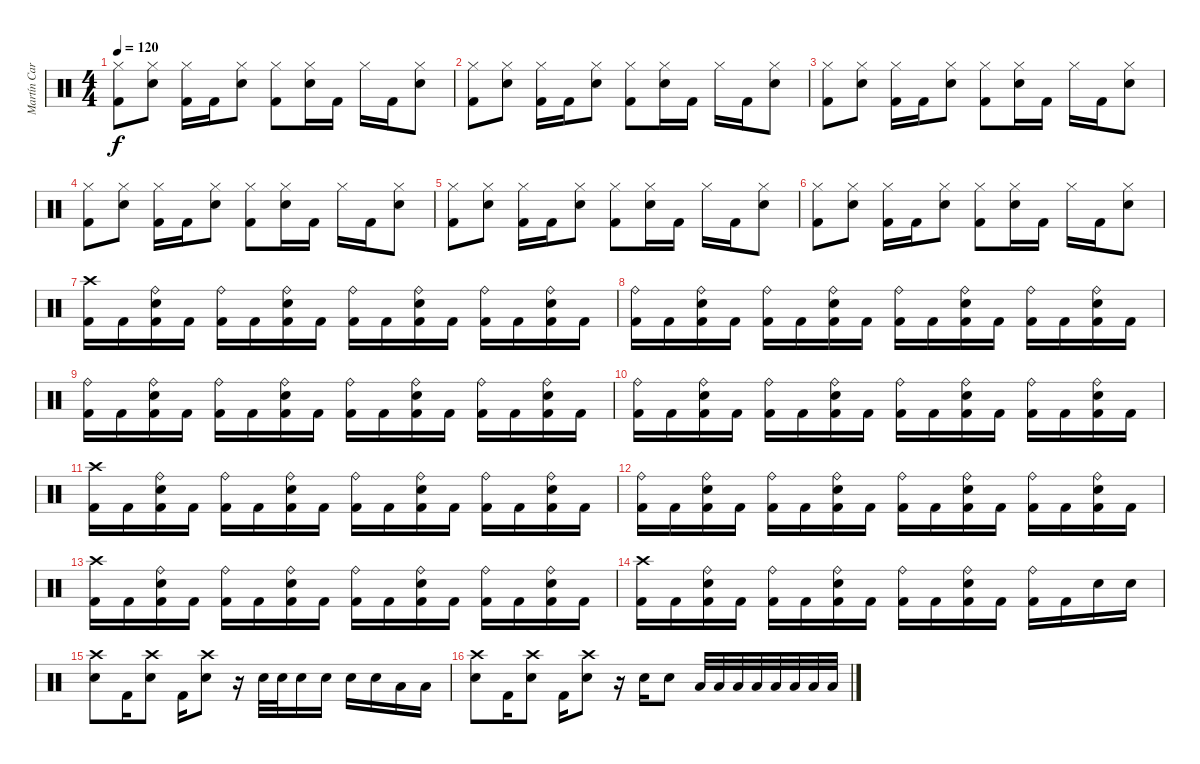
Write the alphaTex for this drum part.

\track ("Martín Carrizo" "Martín Car") {instrument percussion}
\staff {score}
\articulation defaults
\ts (4 4)
\tempo 120
\clef neutral
\ks c
("Hi-Hat (closed)" "Kick (hit) 2").8{dy f} ("Hi-Hat (closed)" "Snare (hit) 2").8 ("Hi-Hat (closed)" "Kick (hit) 2").16 "Kick (hit) 2".16 ("Hi-Hat (closed)" "Snare (hit) 2").8 ("Hi-Hat (closed)" "Kick (hit) 2").8 ("Hi-Hat (closed)" "Snare (hit) 2").16 "Kick (hit) 2".16 "Hi-Hat (closed)".16 "Kick (hit) 2".16 ("Hi-Hat (closed)" "Snare (hit) 2").8 |
("Hi-Hat (closed)" "Kick (hit) 2").8 ("Hi-Hat (closed)" "Snare (hit) 2").8 ("Hi-Hat (closed)" "Kick (hit) 2").16 "Kick (hit) 2".16 ("Hi-Hat (closed)" "Snare (hit) 2").8 ("Hi-Hat (closed)" "Kick (hit) 2").8 ("Hi-Hat (closed)" "Snare (hit) 2").16 "Kick (hit) 2".16 "Hi-Hat (closed)".16 "Kick (hit) 2".16 ("Hi-Hat (closed)" "Snare (hit) 2").8 |
("Hi-Hat (closed)" "Kick (hit) 2").8 ("Hi-Hat (closed)" "Snare (hit) 2").8 ("Hi-Hat (closed)" "Kick (hit) 2").16 "Kick (hit) 2".16 ("Hi-Hat (closed)" "Snare (hit) 2").8 ("Hi-Hat (closed)" "Kick (hit) 2").8 ("Hi-Hat (closed)" "Snare (hit) 2").16 "Kick (hit) 2".16 "Hi-Hat (closed)".16 "Kick (hit) 2".16 ("Hi-Hat (closed)" "Snare (hit) 2").8 |
("Hi-Hat (closed)" "Kick (hit) 2").8 ("Hi-Hat (closed)" "Snare (hit) 2").8 ("Hi-Hat (closed)" "Kick (hit) 2").16 "Kick (hit) 2".16 ("Hi-Hat (closed)" "Snare (hit) 2").8 ("Hi-Hat (closed)" "Kick (hit) 2").8 ("Hi-Hat (closed)" "Snare (hit) 2").16 "Kick (hit) 2".16 "Hi-Hat (closed)".16 "Kick (hit) 2".16 ("Hi-Hat (closed)" "Snare (hit) 2").8 |
("Hi-Hat (closed)" "Kick (hit) 2").8 ("Hi-Hat (closed)" "Snare (hit) 2").8 ("Hi-Hat (closed)" "Kick (hit) 2").16 "Kick (hit) 2".16 ("Hi-Hat (closed)" "Snare (hit) 2").8 ("Hi-Hat (closed)" "Kick (hit) 2").8 ("Hi-Hat (closed)" "Snare (hit) 2").16 "Kick (hit) 2".16 "Hi-Hat (closed)".16 "Kick (hit) 2".16 ("Hi-Hat (closed)" "Snare (hit) 2").8 |
("Hi-Hat (closed)" "Kick (hit) 2").8 ("Hi-Hat (closed)" "Snare (hit) 2").8 ("Hi-Hat (closed)" "Kick (hit) 2").16 "Kick (hit) 2".16 ("Hi-Hat (closed)" "Snare (hit) 2").8 ("Hi-Hat (closed)" "Kick (hit) 2").8 ("Hi-Hat (closed)" "Snare (hit) 2").16 "Kick (hit) 2".16 "Hi-Hat (closed)".16 "Kick (hit) 2".16 ("Hi-Hat (closed)" "Snare (hit) 2").8 |
("Crash high (hit)" "Kick (hit) 2").16 "Kick (hit) 2".16 ("Snare (hit) 2" "Ride (bell)" "Kick (hit) 2").16 "Kick (hit) 2".16 ("Ride (bell)" "Kick (hit) 2").16 "Kick (hit) 2".16 ("Snare (hit) 2" "Ride (bell)" "Kick (hit) 2").16 "Kick (hit) 2".16 ("Ride (bell)" "Kick (hit) 2").16 "Kick (hit) 2".16 ("Snare (hit) 2" "Ride (bell)" "Kick (hit) 2").16 "Kick (hit) 2".16 ("Ride (bell)" "Kick (hit) 2").16 "Kick (hit) 2".16 ("Snare (hit) 2" "Ride (bell)" "Kick (hit) 2").16 "Kick (hit) 2".16 |
("Ride (bell)" "Kick (hit) 2").16 "Kick (hit) 2".16 ("Snare (hit) 2" "Ride (bell)" "Kick (hit) 2").16 "Kick (hit) 2".16 ("Ride (bell)" "Kick (hit) 2").16 "Kick (hit) 2".16 ("Snare (hit) 2" "Ride (bell)" "Kick (hit) 2").16 "Kick (hit) 2".16 ("Ride (bell)" "Kick (hit) 2").16 "Kick (hit) 2".16 ("Snare (hit) 2" "Ride (bell)" "Kick (hit) 2").16 "Kick (hit) 2".16 ("Ride (bell)" "Kick (hit) 2").16 "Kick (hit) 2".16 ("Snare (hit) 2" "Ride (bell)" "Kick (hit) 2").16 "Kick (hit) 2".16 |
("Ride (bell)" "Kick (hit) 2").16 "Kick (hit) 2".16 ("Snare (hit) 2" "Ride (bell)" "Kick (hit) 2").16 "Kick (hit) 2".16 ("Ride (bell)" "Kick (hit) 2").16 "Kick (hit) 2".16 ("Snare (hit) 2" "Ride (bell)" "Kick (hit) 2").16 "Kick (hit) 2".16 ("Ride (bell)" "Kick (hit) 2").16 "Kick (hit) 2".16 ("Snare (hit) 2" "Ride (bell)" "Kick (hit) 2").16 "Kick (hit) 2".16 ("Ride (bell)" "Kick (hit) 2").16 "Kick (hit) 2".16 ("Snare (hit) 2" "Ride (bell)" "Kick (hit) 2").16 "Kick (hit) 2".16 |
("Ride (bell)" "Kick (hit) 2").16 "Kick (hit) 2".16 ("Snare (hit) 2" "Ride (bell)" "Kick (hit) 2").16 "Kick (hit) 2".16 ("Ride (bell)" "Kick (hit) 2").16 "Kick (hit) 2".16 ("Snare (hit) 2" "Ride (bell)" "Kick (hit) 2").16 "Kick (hit) 2".16 ("Ride (bell)" "Kick (hit) 2").16 "Kick (hit) 2".16 ("Snare (hit) 2" "Ride (bell)" "Kick (hit) 2").16 "Kick (hit) 2".16 ("Ride (bell)" "Kick (hit) 2").16 "Kick (hit) 2".16 ("Snare (hit) 2" "Ride (bell)" "Kick (hit) 2").16 "Kick (hit) 2".16 |
("Crash high (hit)" "Kick (hit) 2").16 "Kick (hit) 2".16 ("Snare (hit) 2" "Ride (bell)" "Kick (hit) 2").16 "Kick (hit) 2".16 ("Ride (bell)" "Kick (hit) 2").16 "Kick (hit) 2".16 ("Snare (hit) 2" "Ride (bell)" "Kick (hit) 2").16 "Kick (hit) 2".16 ("Ride (bell)" "Kick (hit) 2").16 "Kick (hit) 2".16 ("Snare (hit) 2" "Ride (bell)" "Kick (hit) 2").16 "Kick (hit) 2".16 ("Ride (bell)" "Kick (hit) 2").16 "Kick (hit) 2".16 ("Snare (hit) 2" "Ride (bell)" "Kick (hit) 2").16 "Kick (hit) 2".16 |
("Ride (bell)" "Kick (hit) 2").16 "Kick (hit) 2".16 ("Snare (hit) 2" "Ride (bell)" "Kick (hit) 2").16 "Kick (hit) 2".16 ("Ride (bell)" "Kick (hit) 2").16 "Kick (hit) 2".16 ("Snare (hit) 2" "Ride (bell)" "Kick (hit) 2").16 "Kick (hit) 2".16 ("Ride (bell)" "Kick (hit) 2").16 "Kick (hit) 2".16 ("Snare (hit) 2" "Ride (bell)" "Kick (hit) 2").16 "Kick (hit) 2".16 ("Ride (bell)" "Kick (hit) 2").16 "Kick (hit) 2".16 ("Snare (hit) 2" "Ride (bell)" "Kick (hit) 2").16 "Kick (hit) 2".16 |
("Crash high (hit)" "Kick (hit) 2").16 "Kick (hit) 2".16 ("Snare (hit) 2" "Ride (bell)" "Kick (hit) 2").16 "Kick (hit) 2".16 ("Ride (bell)" "Kick (hit) 2").16 "Kick (hit) 2".16 ("Snare (hit) 2" "Ride (bell)" "Kick (hit) 2").16 "Kick (hit) 2".16 ("Ride (bell)" "Kick (hit) 2").16 "Kick (hit) 2".16 ("Snare (hit) 2" "Ride (bell)" "Kick (hit) 2").16 "Kick (hit) 2".16 ("Ride (bell)" "Kick (hit) 2").16 "Kick (hit) 2".16 ("Snare (hit) 2" "Ride (bell)" "Kick (hit) 2").16 "Kick (hit) 2".16 |
("Crash high (hit)" "Kick (hit) 2").16 "Kick (hit) 2".16 ("Snare (hit) 2" "Ride (bell)" "Kick (hit) 2").16 "Kick (hit) 2".16 ("Ride (bell)" "Kick (hit) 2").16 "Kick (hit) 2".16 ("Snare (hit) 2" "Ride (bell)" "Kick (hit) 2").16 "Kick (hit) 2".16 ("Ride (bell)" "Kick (hit) 2").16 "Kick (hit) 2".16 ("Snare (hit) 2" "Ride (bell)" "Kick (hit) 2").16 "Kick (hit) 2".16 ("Ride (bell)" "Kick (hit) 2").16 "Kick (hit) 2".16 "Snare (hit) 2".16 "Snare (hit) 2".16 |
("Crash high (hit)" "Snare (hit) 2").8 "Kick (hit) 2".16 ("Crash high (hit)" "Snare (hit) 2").8 "Kick (hit) 2".16 ("Crash high (hit)" "Snare (hit) 2").8 r.16 "Snare (hit) 2".32 "Snare (hit) 2".32 "Snare (hit) 2".16 "Snare (hit) 2".16 "Snare (hit) 2".16 "Snare (hit) 2".16 "Low Tom (hit)".16 "Low Tom (hit)".16 |
("Crash high (hit)" "Snare (hit) 2").8 "Kick (hit) 2".16 ("Crash high (hit)" "Snare (hit) 2").8 "Kick (hit) 2".16 ("Crash high (hit)" "Snare (hit) 2").8 r.16 "Snare (hit) 2".16 "Snare (hit) 2".8 "Low Tom (hit)".32 "Low Tom (hit)".32 "Low Tom (hit)".32 "Low Tom (hit)".32 "Low Tom (hit)".32 "Low Tom (hit)".32 "Low Tom (hit)".32 "Low Tom (hit)".32
